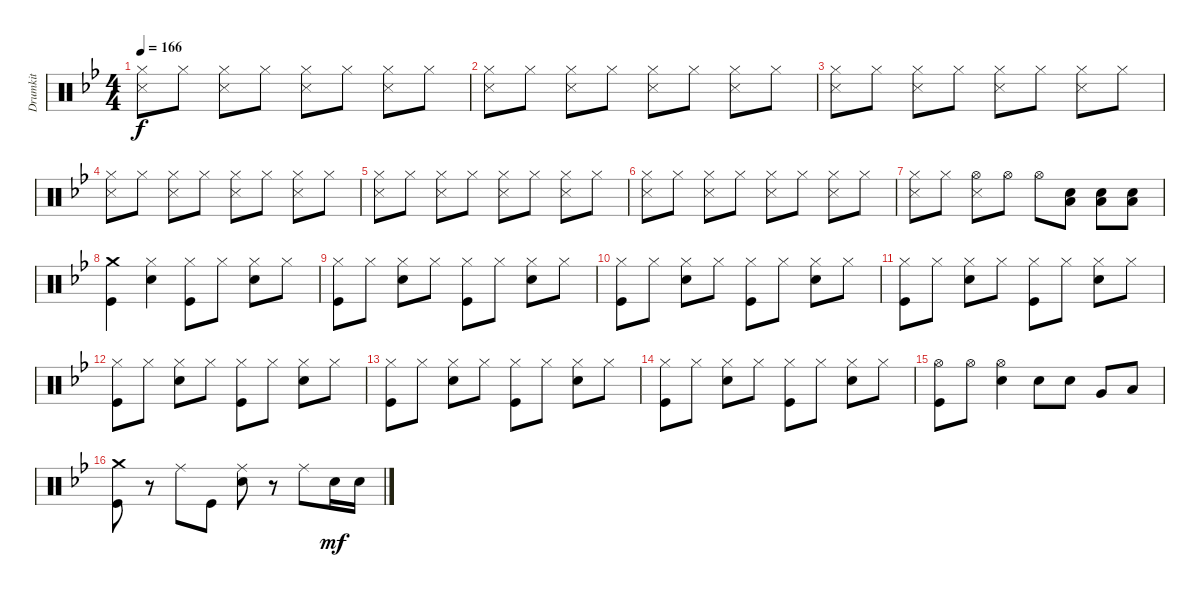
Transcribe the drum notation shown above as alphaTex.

\track ("Drumkit" "Drumkit") {instrument percussion}
\staff {score}
\articulation defaults
\ts (4 4)
\tempo 166
\clef neutral
\ks gminor
("Snare (side stick) 3" "Hi-Hat (closed)").8{dy f} "Hi-Hat (closed)".8 ("Snare (side stick) 3" "Hi-Hat (closed)").8 "Hi-Hat (closed)".8 ("Hi-Hat (closed)" "Snare (side stick) 3").8 "Hi-Hat (closed)".8 ("Hi-Hat (closed)" "Snare (side stick) 3").8 "Hi-Hat (closed)".8 |
("Snare (side stick) 3" "Hi-Hat (closed)").8 "Hi-Hat (closed)".8 ("Snare (side stick) 3" "Hi-Hat (closed)").8 "Hi-Hat (closed)".8 ("Hi-Hat (closed)" "Snare (side stick) 3").8 "Hi-Hat (closed)".8 ("Hi-Hat (closed)" "Snare (side stick) 3").8 "Hi-Hat (closed)".8 |
("Snare (side stick) 3" "Hi-Hat (closed)").8 "Hi-Hat (closed)".8 ("Snare (side stick) 3" "Hi-Hat (closed)").8 "Hi-Hat (closed)".8 ("Hi-Hat (closed)" "Snare (side stick) 3").8 "Hi-Hat (closed)".8 ("Hi-Hat (closed)" "Snare (side stick) 3").8 "Hi-Hat (closed)".8 |
("Snare (side stick) 3" "Hi-Hat (closed)").8 "Hi-Hat (closed)".8 ("Snare (side stick) 3" "Hi-Hat (closed)").8 "Hi-Hat (closed)".8 ("Hi-Hat (closed)" "Snare (side stick) 3").8 "Hi-Hat (closed)".8 ("Hi-Hat (closed)" "Snare (side stick) 3").8 "Hi-Hat (closed)".8 |
("Snare (side stick) 3" "Hi-Hat (closed)").8 "Hi-Hat (closed)".8 ("Snare (side stick) 3" "Hi-Hat (closed)").8 "Hi-Hat (closed)".8 ("Hi-Hat (closed)" "Snare (side stick) 3").8 "Hi-Hat (closed)".8 ("Hi-Hat (closed)" "Snare (side stick) 3").8 "Hi-Hat (closed)".8 |
("Snare (side stick) 3" "Hi-Hat (closed)").8 "Hi-Hat (closed)".8 ("Snare (side stick) 3" "Hi-Hat (closed)").8 "Hi-Hat (closed)".8 ("Hi-Hat (closed)" "Snare (side stick) 3").8 "Hi-Hat (closed)".8 ("Hi-Hat (closed)" "Snare (side stick) 3").8 "Hi-Hat (closed)".8 |
("Snare (side stick) 3" "Hi-Hat (closed)").8 "Hi-Hat (closed)".8 ("Hi-Hat (open)" "Snare (side stick) 3").8 "Hi-Hat (open)".8 "Hi-Hat (open)".8 ("Snare (hit) 2" "Low Floor Tom (hit)").8 ("Snare (hit) 2" "Low Floor Tom (hit)").8 ("Snare (hit) 2" "Low Floor Tom (hit)").8 |
("Crash medium (hit)" "Kick (hit)").4 ("Hi-Hat (closed)" "Snare (hit) 2").4 ("Hi-Hat (closed)" "Kick (hit)").8 "Hi-Hat (closed)".8 ("Hi-Hat (closed)" "Snare (hit) 2").8 "Hi-Hat (closed)".8 |
("Hi-Hat (closed)" "Kick (hit)").8 "Hi-Hat (closed)".8 ("Hi-Hat (closed)" "Snare (hit) 2").8 "Hi-Hat (closed)".8 ("Hi-Hat (closed)" "Kick (hit)").8 "Hi-Hat (closed)".8 ("Hi-Hat (closed)" "Snare (hit) 2").8 "Hi-Hat (closed)".8 |
("Hi-Hat (closed)" "Kick (hit)").8 "Hi-Hat (closed)".8 ("Hi-Hat (closed)" "Snare (hit) 2").8 "Hi-Hat (closed)".8 ("Hi-Hat (closed)" "Kick (hit)").8 "Hi-Hat (closed)".8 ("Hi-Hat (closed)" "Snare (hit) 2").8 "Hi-Hat (closed)".8 |
("Hi-Hat (closed)" "Kick (hit)").8 "Hi-Hat (closed)".8 ("Hi-Hat (closed)" "Snare (hit) 2").8 "Hi-Hat (closed)".8 ("Hi-Hat (closed)" "Kick (hit)").8 "Hi-Hat (closed)".8 ("Hi-Hat (closed)" "Snare (hit) 2").8 "Hi-Hat (closed)".8 |
("Hi-Hat (closed)" "Kick (hit)").8 "Hi-Hat (closed)".8 ("Hi-Hat (closed)" "Snare (hit) 2").8 "Hi-Hat (closed)".8 ("Hi-Hat (closed)" "Kick (hit)").8 "Hi-Hat (closed)".8 ("Hi-Hat (closed)" "Snare (hit) 2").8 "Hi-Hat (closed)".8 |
("Hi-Hat (closed)" "Kick (hit)").8 "Hi-Hat (closed)".8 ("Hi-Hat (closed)" "Snare (hit) 2").8 "Hi-Hat (closed)".8 ("Hi-Hat (closed)" "Kick (hit)").8 "Hi-Hat (closed)".8 ("Hi-Hat (closed)" "Snare (hit) 2").8 "Hi-Hat (closed)".8 |
("Hi-Hat (closed)" "Kick (hit)").8 "Hi-Hat (closed)".8 ("Hi-Hat (closed)" "Snare (hit) 2").8 "Hi-Hat (closed)".8 ("Hi-Hat (closed)" "Kick (hit)").8 "Hi-Hat (closed)".8 ("Hi-Hat (closed)" "Snare (hit) 2").8 "Hi-Hat (closed)".8 |
("Hi-Hat (open)" "Kick (hit)").8 "Hi-Hat (open)".8 ("Hi-Hat (open)" "Snare (hit) 2").4 "Snare (hit) 2".8 "Snare (hit) 2".8 "Very Low Tom (hit)".8 "Low Floor Tom (hit)".8 |
("Crash medium (hit)" "Kick (hit)").8 r.8 "Ride (middle)".8 "Kick (hit)".8 ("Ride (middle)" "Snare (hit) 2").8 r.8 "Ride (middle)".8 "Snare (hit) 2".16{dy mf} "Snare (hit) 2".16
